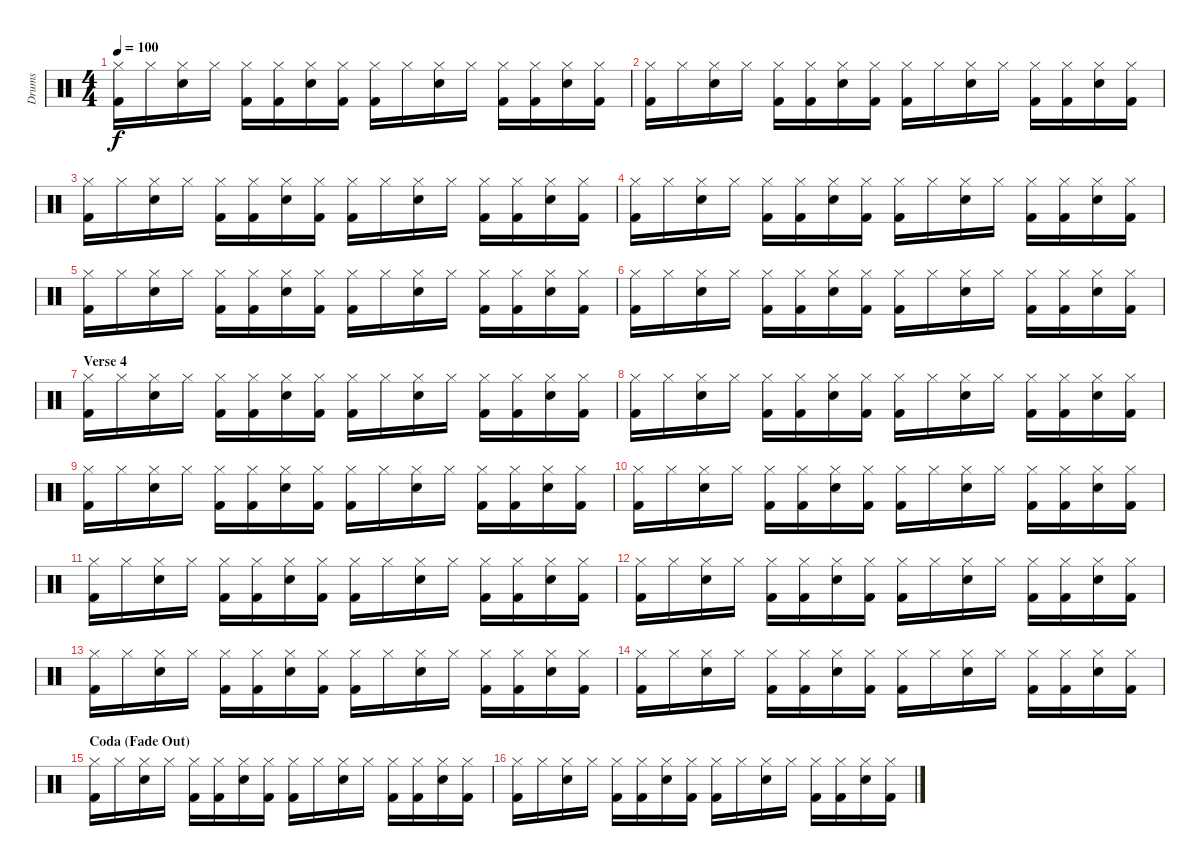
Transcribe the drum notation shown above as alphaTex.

\track ("Drums" "Drums") {instrument percussion}
\staff {score}
\articulation defaults
\ts (4 4)
\tempo 100
\clef neutral
\ks c
("Hi-Hat (closed)" "Kick (hit) 2").16{dy f} "Hi-Hat (closed)".16 ("Hi-Hat (closed)" "Snare (hit) 2").16 "Hi-Hat (closed)".16 ("Hi-Hat (closed)" "Kick (hit) 2").16 ("Hi-Hat (closed)" "Kick (hit) 2").16 ("Hi-Hat (closed)" "Snare (hit) 2").16 ("Hi-Hat (closed)" "Kick (hit) 2").16 ("Hi-Hat (closed)" "Kick (hit) 2").16 "Hi-Hat (closed)".16 ("Hi-Hat (closed)" "Snare (hit) 2").16 "Hi-Hat (closed)".16 ("Hi-Hat (closed)" "Kick (hit) 2").16 ("Hi-Hat (closed)" "Kick (hit) 2").16 ("Hi-Hat (closed)" "Snare (hit) 2").16 ("Hi-Hat (closed)" "Kick (hit) 2").16 |
("Hi-Hat (closed)" "Kick (hit) 2").16 "Hi-Hat (closed)".16 ("Hi-Hat (closed)" "Snare (hit) 2").16 "Hi-Hat (closed)".16 ("Hi-Hat (closed)" "Kick (hit) 2").16 ("Hi-Hat (closed)" "Kick (hit) 2").16 ("Hi-Hat (closed)" "Snare (hit) 2").16 ("Hi-Hat (closed)" "Kick (hit) 2").16 ("Hi-Hat (closed)" "Kick (hit) 2").16 "Hi-Hat (closed)".16 ("Hi-Hat (closed)" "Snare (hit) 2").16 "Hi-Hat (closed)".16 ("Hi-Hat (closed)" "Kick (hit) 2").16 ("Hi-Hat (closed)" "Kick (hit) 2").16 ("Hi-Hat (closed)" "Snare (hit) 2").16 ("Hi-Hat (closed)" "Kick (hit) 2").16 |
("Hi-Hat (closed)" "Kick (hit) 2").16 "Hi-Hat (closed)".16 ("Hi-Hat (closed)" "Snare (hit) 2").16 "Hi-Hat (closed)".16 ("Hi-Hat (closed)" "Kick (hit) 2").16 ("Hi-Hat (closed)" "Kick (hit) 2").16 ("Hi-Hat (closed)" "Snare (hit) 2").16 ("Hi-Hat (closed)" "Kick (hit) 2").16 ("Hi-Hat (closed)" "Kick (hit) 2").16 "Hi-Hat (closed)".16 ("Hi-Hat (closed)" "Snare (hit) 2").16 "Hi-Hat (closed)".16 ("Hi-Hat (closed)" "Kick (hit) 2").16 ("Hi-Hat (closed)" "Kick (hit) 2").16 ("Hi-Hat (closed)" "Snare (hit) 2").16 ("Hi-Hat (closed)" "Kick (hit) 2").16 |
("Hi-Hat (closed)" "Kick (hit) 2").16 "Hi-Hat (closed)".16 ("Hi-Hat (closed)" "Snare (hit) 2").16 "Hi-Hat (closed)".16 ("Hi-Hat (closed)" "Kick (hit) 2").16 ("Hi-Hat (closed)" "Kick (hit) 2").16 ("Hi-Hat (closed)" "Snare (hit) 2").16 ("Hi-Hat (closed)" "Kick (hit) 2").16 ("Hi-Hat (closed)" "Kick (hit) 2").16 "Hi-Hat (closed)".16 ("Hi-Hat (closed)" "Snare (hit) 2").16 "Hi-Hat (closed)".16 ("Hi-Hat (closed)" "Kick (hit) 2").16 ("Hi-Hat (closed)" "Kick (hit) 2").16 ("Hi-Hat (closed)" "Snare (hit) 2").16 ("Hi-Hat (closed)" "Kick (hit) 2").16 |
("Hi-Hat (closed)" "Kick (hit) 2").16 "Hi-Hat (closed)".16 ("Hi-Hat (closed)" "Snare (hit) 2").16 "Hi-Hat (closed)".16 ("Hi-Hat (closed)" "Kick (hit) 2").16 ("Hi-Hat (closed)" "Kick (hit) 2").16 ("Hi-Hat (closed)" "Snare (hit) 2").16 ("Hi-Hat (closed)" "Kick (hit) 2").16 ("Hi-Hat (closed)" "Kick (hit) 2").16 "Hi-Hat (closed)".16 ("Hi-Hat (closed)" "Snare (hit) 2").16 "Hi-Hat (closed)".16 ("Hi-Hat (closed)" "Kick (hit) 2").16 ("Hi-Hat (closed)" "Kick (hit) 2").16 ("Hi-Hat (closed)" "Snare (hit) 2").16 ("Hi-Hat (closed)" "Kick (hit) 2").16 |
("Hi-Hat (closed)" "Kick (hit) 2").16 "Hi-Hat (closed)".16 ("Hi-Hat (closed)" "Snare (hit) 2").16 "Hi-Hat (closed)".16 ("Hi-Hat (closed)" "Kick (hit) 2").16 ("Hi-Hat (closed)" "Kick (hit) 2").16 ("Hi-Hat (closed)" "Snare (hit) 2").16 ("Hi-Hat (closed)" "Kick (hit) 2").16 ("Hi-Hat (closed)" "Kick (hit) 2").16 "Hi-Hat (closed)".16 ("Hi-Hat (closed)" "Snare (hit) 2").16 "Hi-Hat (closed)".16 ("Hi-Hat (closed)" "Kick (hit) 2").16 ("Hi-Hat (closed)" "Kick (hit) 2").16 ("Hi-Hat (closed)" "Snare (hit) 2").16 ("Hi-Hat (closed)" "Kick (hit) 2").16 |
\section ("" "Verse 4")
("Hi-Hat (closed)" "Kick (hit) 2").16 "Hi-Hat (closed)".16 ("Hi-Hat (closed)" "Snare (hit) 2").16 "Hi-Hat (closed)".16 ("Hi-Hat (closed)" "Kick (hit) 2").16 ("Hi-Hat (closed)" "Kick (hit) 2").16 ("Hi-Hat (closed)" "Snare (hit) 2").16 ("Hi-Hat (closed)" "Kick (hit) 2").16 ("Hi-Hat (closed)" "Kick (hit) 2").16 "Hi-Hat (closed)".16 ("Hi-Hat (closed)" "Snare (hit) 2").16 "Hi-Hat (closed)".16 ("Hi-Hat (closed)" "Kick (hit) 2").16 ("Hi-Hat (closed)" "Kick (hit) 2").16 ("Hi-Hat (closed)" "Snare (hit) 2").16 ("Hi-Hat (closed)" "Kick (hit) 2").16 |
("Hi-Hat (closed)" "Kick (hit) 2").16 "Hi-Hat (closed)".16 ("Hi-Hat (closed)" "Snare (hit) 2").16 "Hi-Hat (closed)".16 ("Hi-Hat (closed)" "Kick (hit) 2").16 ("Hi-Hat (closed)" "Kick (hit) 2").16 ("Hi-Hat (closed)" "Snare (hit) 2").16 ("Hi-Hat (closed)" "Kick (hit) 2").16 ("Hi-Hat (closed)" "Kick (hit) 2").16 "Hi-Hat (closed)".16 ("Hi-Hat (closed)" "Snare (hit) 2").16 "Hi-Hat (closed)".16 ("Hi-Hat (closed)" "Kick (hit) 2").16 ("Hi-Hat (closed)" "Kick (hit) 2").16 ("Hi-Hat (closed)" "Snare (hit) 2").16 ("Hi-Hat (closed)" "Kick (hit) 2").16 |
("Hi-Hat (closed)" "Kick (hit) 2").16 "Hi-Hat (closed)".16 ("Hi-Hat (closed)" "Snare (hit) 2").16 "Hi-Hat (closed)".16 ("Hi-Hat (closed)" "Kick (hit) 2").16 ("Hi-Hat (closed)" "Kick (hit) 2").16 ("Hi-Hat (closed)" "Snare (hit) 2").16 ("Hi-Hat (closed)" "Kick (hit) 2").16 ("Hi-Hat (closed)" "Kick (hit) 2").16 "Hi-Hat (closed)".16 ("Hi-Hat (closed)" "Snare (hit) 2").16 "Hi-Hat (closed)".16 ("Hi-Hat (closed)" "Kick (hit) 2").16 ("Hi-Hat (closed)" "Kick (hit) 2").16 ("Hi-Hat (closed)" "Snare (hit) 2").16 ("Hi-Hat (closed)" "Kick (hit) 2").16 |
("Hi-Hat (closed)" "Kick (hit) 2").16 "Hi-Hat (closed)".16 ("Hi-Hat (closed)" "Snare (hit) 2").16 "Hi-Hat (closed)".16 ("Hi-Hat (closed)" "Kick (hit) 2").16 ("Hi-Hat (closed)" "Kick (hit) 2").16 ("Hi-Hat (closed)" "Snare (hit) 2").16 ("Hi-Hat (closed)" "Kick (hit) 2").16 ("Hi-Hat (closed)" "Kick (hit) 2").16 "Hi-Hat (closed)".16 ("Hi-Hat (closed)" "Snare (hit) 2").16 "Hi-Hat (closed)".16 ("Hi-Hat (closed)" "Kick (hit) 2").16 ("Hi-Hat (closed)" "Kick (hit) 2").16 ("Hi-Hat (closed)" "Snare (hit) 2").16 ("Hi-Hat (closed)" "Kick (hit) 2").16 |
("Hi-Hat (closed)" "Kick (hit) 2").16 "Hi-Hat (closed)".16 ("Hi-Hat (closed)" "Snare (hit) 2").16 "Hi-Hat (closed)".16 ("Hi-Hat (closed)" "Kick (hit) 2").16 ("Hi-Hat (closed)" "Kick (hit) 2").16 ("Hi-Hat (closed)" "Snare (hit) 2").16 ("Hi-Hat (closed)" "Kick (hit) 2").16 ("Hi-Hat (closed)" "Kick (hit) 2").16 "Hi-Hat (closed)".16 ("Hi-Hat (closed)" "Snare (hit) 2").16 "Hi-Hat (closed)".16 ("Hi-Hat (closed)" "Kick (hit) 2").16 ("Hi-Hat (closed)" "Kick (hit) 2").16 ("Hi-Hat (closed)" "Snare (hit) 2").16 ("Hi-Hat (closed)" "Kick (hit) 2").16 |
("Hi-Hat (closed)" "Kick (hit) 2").16 "Hi-Hat (closed)".16 ("Hi-Hat (closed)" "Snare (hit) 2").16 "Hi-Hat (closed)".16 ("Hi-Hat (closed)" "Kick (hit) 2").16 ("Hi-Hat (closed)" "Kick (hit) 2").16 ("Hi-Hat (closed)" "Snare (hit) 2").16 ("Hi-Hat (closed)" "Kick (hit) 2").16 ("Hi-Hat (closed)" "Kick (hit) 2").16 "Hi-Hat (closed)".16 ("Hi-Hat (closed)" "Snare (hit) 2").16 "Hi-Hat (closed)".16 ("Hi-Hat (closed)" "Kick (hit) 2").16 ("Hi-Hat (closed)" "Kick (hit) 2").16 ("Hi-Hat (closed)" "Snare (hit) 2").16 ("Hi-Hat (closed)" "Kick (hit) 2").16 |
("Hi-Hat (closed)" "Kick (hit) 2").16 "Hi-Hat (closed)".16 ("Hi-Hat (closed)" "Snare (hit) 2").16 "Hi-Hat (closed)".16 ("Hi-Hat (closed)" "Kick (hit) 2").16 ("Hi-Hat (closed)" "Kick (hit) 2").16 ("Hi-Hat (closed)" "Snare (hit) 2").16 ("Hi-Hat (closed)" "Kick (hit) 2").16 ("Hi-Hat (closed)" "Kick (hit) 2").16 "Hi-Hat (closed)".16 ("Hi-Hat (closed)" "Snare (hit) 2").16 "Hi-Hat (closed)".16 ("Hi-Hat (closed)" "Kick (hit) 2").16 ("Hi-Hat (closed)" "Kick (hit) 2").16 ("Hi-Hat (closed)" "Snare (hit) 2").16 ("Hi-Hat (closed)" "Kick (hit) 2").16 |
("Hi-Hat (closed)" "Kick (hit) 2").16{volume 10} "Hi-Hat (closed)".16 ("Hi-Hat (closed)" "Snare (hit) 2").16 "Hi-Hat (closed)".16 ("Hi-Hat (closed)" "Kick (hit) 2").16 ("Hi-Hat (closed)" "Kick (hit) 2").16 ("Hi-Hat (closed)" "Snare (hit) 2").16 ("Hi-Hat (closed)" "Kick (hit) 2").16 ("Hi-Hat (closed)" "Kick (hit) 2").16 "Hi-Hat (closed)".16 ("Hi-Hat (closed)" "Snare (hit) 2").16 "Hi-Hat (closed)".16 ("Hi-Hat (closed)" "Kick (hit) 2").16 ("Hi-Hat (closed)" "Kick (hit) 2").16 ("Hi-Hat (closed)" "Snare (hit) 2").16 ("Hi-Hat (closed)" "Kick (hit) 2").16 |
\section ("" "Coda (Fade Out)")
("Hi-Hat (closed)" "Kick (hit) 2").16{volume 8} "Hi-Hat (closed)".16 ("Hi-Hat (closed)" "Snare (hit) 2").16 "Hi-Hat (closed)".16 ("Hi-Hat (closed)" "Kick (hit) 2").16 ("Hi-Hat (closed)" "Kick (hit) 2").16 ("Hi-Hat (closed)" "Snare (hit) 2").16 ("Hi-Hat (closed)" "Kick (hit) 2").16 ("Hi-Hat (closed)" "Kick (hit) 2").16 "Hi-Hat (closed)".16 ("Hi-Hat (closed)" "Snare (hit) 2").16 "Hi-Hat (closed)".16 ("Hi-Hat (closed)" "Kick (hit) 2").16 ("Hi-Hat (closed)" "Kick (hit) 2").16 ("Hi-Hat (closed)" "Snare (hit) 2").16 ("Hi-Hat (closed)" "Kick (hit) 2").16 |
("Hi-Hat (closed)" "Kick (hit) 2").16{volume 6} "Hi-Hat (closed)".16 ("Hi-Hat (closed)" "Snare (hit) 2").16 "Hi-Hat (closed)".16 ("Hi-Hat (closed)" "Kick (hit) 2").16 ("Hi-Hat (closed)" "Kick (hit) 2").16 ("Hi-Hat (closed)" "Snare (hit) 2").16 ("Hi-Hat (closed)" "Kick (hit) 2").16 ("Hi-Hat (closed)" "Kick (hit) 2").16 "Hi-Hat (closed)".16 ("Hi-Hat (closed)" "Snare (hit) 2").16 "Hi-Hat (closed)".16 ("Hi-Hat (closed)" "Kick (hit) 2").16 ("Hi-Hat (closed)" "Kick (hit) 2").16 ("Hi-Hat (closed)" "Snare (hit) 2").16 ("Hi-Hat (closed)" "Kick (hit) 2").16
